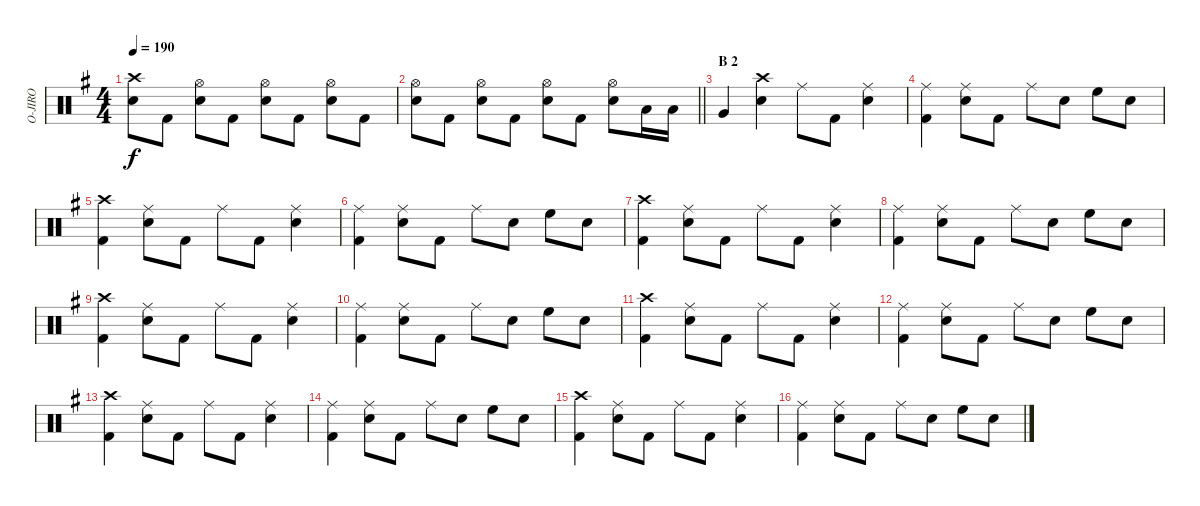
\track ("O-JIRO" "O-JIRO") {instrument percussion}
\staff {score}
\articulation defaults
\ts (4 4)
\tempo 190
\clef neutral
\ks g
("Crash high (hit)" "Snare (hit) 2").8{dy f} "Kick (hit) 2".8 ("Hi-Hat (open)" "Snare (hit) 2").8 "Kick (hit) 2".8 ("Hi-Hat (open)" "Snare (hit) 2").8 "Kick (hit) 2".8 ("Hi-Hat (open)" "Snare (hit) 2").8 "Kick (hit) 2".8 |
\barLineRight lightlight
("Hi-Hat (open)" "Snare (hit) 2").8 "Kick (hit) 2".8 ("Hi-Hat (open)" "Snare (hit) 2").8 "Kick (hit) 2".8 ("Hi-Hat (open)" "Snare (hit) 2").8 "Kick (hit) 2".8 ("Hi-Hat (open)" "Snare (hit) 2").8 "Low Tom (hit)".16 "Low Tom (hit)".16 |
\section ("" "B 2")
"Very Low Tom (hit)".4 ("Crash high (hit)" "Snare (hit) 2").4 "Ride (middle)".8 "Kick (hit) 2".8 ("Ride (middle)" "Snare (hit) 2").4 |
("Ride (middle)" "Kick (hit) 2").4 ("Ride (middle)" "Snare (hit) 2").8 "Kick (hit) 2".8 "Ride (middle)".8 "Snare (hit) 2".8 "High Floor Tom (hit)".8 "Snare (hit) 2".8 |
("Crash high (hit)" "Kick (hit) 2").4 ("Ride (middle)" "Snare (hit) 2").8 "Kick (hit) 2".8 "Ride (middle)".8 "Kick (hit) 2".8 ("Ride (middle)" "Snare (hit) 2").4 |
("Ride (middle)" "Kick (hit) 2").4 ("Ride (middle)" "Snare (hit) 2").8 "Kick (hit) 2".8 "Ride (middle)".8 "Snare (hit) 2".8 "High Floor Tom (hit)".8 "Snare (hit) 2".8 |
("Crash high (hit)" "Kick (hit) 2").4 ("Ride (middle)" "Snare (hit) 2").8 "Kick (hit) 2".8 "Ride (middle)".8 "Kick (hit) 2".8 ("Ride (middle)" "Snare (hit) 2").4 |
("Ride (middle)" "Kick (hit) 2").4 ("Ride (middle)" "Snare (hit) 2").8 "Kick (hit) 2".8 "Ride (middle)".8 "Snare (hit) 2".8 "High Floor Tom (hit)".8 "Snare (hit) 2".8 |
("Crash high (hit)" "Kick (hit) 2").4 ("Ride (middle)" "Snare (hit) 2").8 "Kick (hit) 2".8 "Ride (middle)".8 "Kick (hit) 2".8 ("Ride (middle)" "Snare (hit) 2").4 |
("Ride (middle)" "Kick (hit) 2").4 ("Ride (middle)" "Snare (hit) 2").8 "Kick (hit) 2".8 "Ride (middle)".8 "Snare (hit) 2".8 "High Floor Tom (hit)".8 "Snare (hit) 2".8 |
("Crash high (hit)" "Kick (hit) 2").4 ("Ride (middle)" "Snare (hit) 2").8 "Kick (hit) 2".8 "Ride (middle)".8 "Kick (hit) 2".8 ("Ride (middle)" "Snare (hit) 2").4 |
("Ride (middle)" "Kick (hit) 2").4 ("Ride (middle)" "Snare (hit) 2").8 "Kick (hit) 2".8 "Ride (middle)".8 "Snare (hit) 2".8 "High Floor Tom (hit)".8 "Snare (hit) 2".8 |
("Crash high (hit)" "Kick (hit) 2").4 ("Ride (middle)" "Snare (hit) 2").8 "Kick (hit) 2".8 "Ride (middle)".8 "Kick (hit) 2".8 ("Ride (middle)" "Snare (hit) 2").4 |
("Ride (middle)" "Kick (hit) 2").4 ("Ride (middle)" "Snare (hit) 2").8 "Kick (hit) 2".8 "Ride (middle)".8 "Snare (hit) 2".8 "High Floor Tom (hit)".8 "Snare (hit) 2".8 |
("Crash high (hit)" "Kick (hit) 2").4 ("Ride (middle)" "Snare (hit) 2").8 "Kick (hit) 2".8 "Ride (middle)".8 "Kick (hit) 2".8 ("Ride (middle)" "Snare (hit) 2").4 |
("Ride (middle)" "Kick (hit) 2").4 ("Ride (middle)" "Snare (hit) 2").8 "Kick (hit) 2".8 "Ride (middle)".8 "Snare (hit) 2".8 "High Floor Tom (hit)".8 "Snare (hit) 2".8
